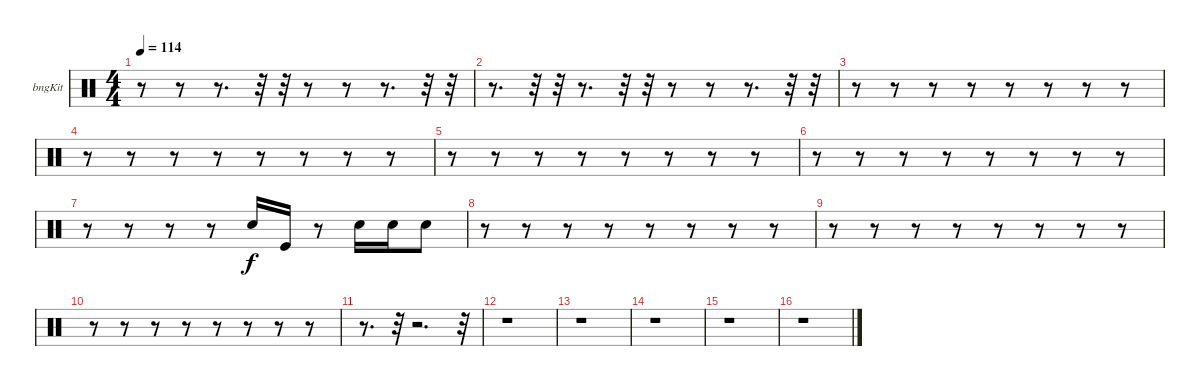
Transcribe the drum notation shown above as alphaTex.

\bracketExtendMode groupsimilarinstruments
\firstSystemTrackNameOrientation horizontal
\otherSystemsTrackNameOrientation horizontal
\track ("Bongos" "bngKit") {instrument percussion}
\staff {score}
\articulation defaults
\ts (4 4)
\tempo 114
\clef neutral
\ks c
r.8{dy f} r.8 r.8{d} r.32 r.32 r.8 r.8 r.8{d} r.32 r.32 |
r.8{d} r.32 r.32 r.8{d} r.32 r.32 r.8 r.8 r.8{d} r.32 r.32 |
r.8 r.8 r.8 r.8 r.8 r.8 r.8 r.8 |
r.8 r.8 r.8 r.8 r.8 r.8 r.8 r.8 |
r.8 r.8 r.8 r.8 r.8 r.8 r.8 r.8 |
r.8 r.8 r.8 r.8 r.8 r.8 r.8 r.8 |
r.8 r.8 r.8 r.8 "Snare (hit) 2".16 "Kick (hit)".16 r.8 "Snare (hit) 2".16 "Snare (hit) 2".16 "Snare (hit) 2".8 |
r.8 r.8 r.8 r.8 r.8 r.8 r.8 r.8 |
r.8 r.8 r.8 r.8 r.8 r.8 r.8 r.8 |
r.8 r.8 r.8 r.8 r.8 r.8 r.8 r.8 |
r.8{d} r.32 r.2{d} r.32 |
r.1 |
r.1 |
r.1 |
r.1 |
r.1
